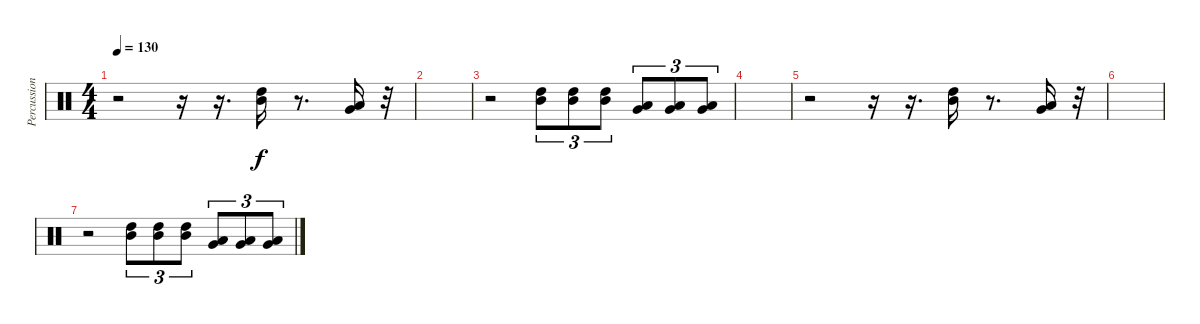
\track ("Percussion" "Percussion") {instrument percussion bank 177}
\staff {score}
\articulation defaults
\ts (4 4)
\tempo 130
\clef neutral
\ks c
r.2{dy f} r.16 r.16{d} ("High Tom (hit)" "Mid Tom (hit)").16 r.8{d} ("Low Tom (hit)" "Very Low Tom (hit)").16 r.32 |
|
r.2 ("High Tom (hit)" "Mid Tom (hit)").8{tu (3 2)} ("High Tom (hit)" "Mid Tom (hit)").8{tu (3 2)} ("High Tom (hit)" "Mid Tom (hit)").8{tu (3 2)} ("Low Tom (hit)" "Very Low Tom (hit)").8{tu (3 2)} ("Low Tom (hit)" "Very Low Tom (hit)").8{tu (3 2)} ("Low Tom (hit)" "Very Low Tom (hit)").8{tu (3 2)} |
|
r.2 r.16 r.16{d} ("High Tom (hit)" "Mid Tom (hit)").16 r.8{d} ("Low Tom (hit)" "Very Low Tom (hit)").16 r.32 |
|
r.2 ("High Tom (hit)" "Mid Tom (hit)").8{tu (3 2)} ("High Tom (hit)" "Mid Tom (hit)").8{tu (3 2)} ("High Tom (hit)" "Mid Tom (hit)").8{tu (3 2)} ("Low Tom (hit)" "Very Low Tom (hit)").8{tu (3 2)} ("Low Tom (hit)" "Very Low Tom (hit)").8{tu (3 2)} ("Low Tom (hit)" "Very Low Tom (hit)").8{tu (3 2)}
